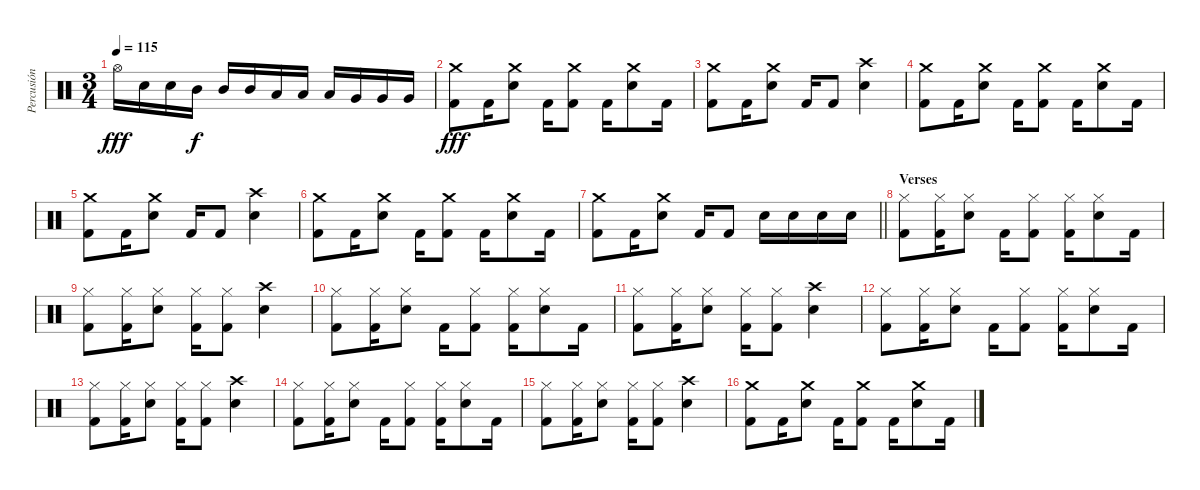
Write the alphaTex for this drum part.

\track ("Percusión" "Percusión") {instrument percussion}
\staff {score}
\articulation defaults
\ts (3 4)
\tempo 115
\clef neutral
\ks c "Hi-Hat (open)".16{dy fff} "Electric Snare (hit)".16 "Electric Snare (hit)".16 "Mid Tom (hit)".16{dy f} "Mid Tom (hit)".16 "Mid Tom (hit)".16 "Low Tom (hit)".16 "Low Tom (hit)".16 "Low Tom (hit)".16 "Very Low Tom (hit)".16 "Very Low Tom (hit)".16 "Very Low Tom (hit)".16
|
("Crash medium (hit)" "Kick (hit) 2").8{dy fff} "Kick (hit) 2".16 ("Crash medium (hit)" "Electric Snare (hit)").8 "Kick (hit) 2".16 ("Crash medium (hit)" "Kick (hit) 2").8 "Kick (hit) 2".16 ("Crash medium (hit)" "Electric Snare (hit)").8 "Kick (hit) 2".16 |
("Crash medium (hit)" "Kick (hit) 2").8 "Kick (hit) 2".16 ("Crash medium (hit)" "Electric Snare (hit)").8 "Kick (hit) 2".16 "Kick (hit) 2".8 ("Crash high (hit)" "Electric Snare (hit)").4 |
("Crash medium (hit)" "Kick (hit) 2").8 "Kick (hit) 2".16 ("Crash medium (hit)" "Electric Snare (hit)").8 "Kick (hit) 2".16 ("Crash medium (hit)" "Kick (hit) 2").8 "Kick (hit) 2".16 ("Crash medium (hit)" "Electric Snare (hit)").8 "Kick (hit) 2".16 |
("Crash medium (hit)" "Kick (hit) 2").8 "Kick (hit) 2".16 ("Crash medium (hit)" "Electric Snare (hit)").8 "Kick (hit) 2".16 "Kick (hit) 2".8 ("Crash high (hit)" "Electric Snare (hit)").4 |
("Crash medium (hit)" "Kick (hit) 2").8 "Kick (hit) 2".16 ("Crash medium (hit)" "Electric Snare (hit)").8 "Kick (hit) 2".16 ("Crash medium (hit)" "Kick (hit) 2").8 "Kick (hit) 2".16 ("Crash medium (hit)" "Electric Snare (hit)").8 "Kick (hit) 2".16 |
\barLineRight lightlight
("Crash medium (hit)" "Kick (hit) 2").8 "Kick (hit) 2".16 ("Crash medium (hit)" "Electric Snare (hit)").8 "Kick (hit) 2".16 "Kick (hit) 2".8 "Electric Snare (hit)".16 "Electric Snare (hit)".16 "Electric Snare (hit)".16 "Electric Snare (hit)".16 |
\section ("" "Verses")
("Hi-Hat (closed)" "Kick (hit) 2").8 ("Hi-Hat (closed)" "Kick (hit) 2").16 ("Hi-Hat (closed)" "Electric Snare (hit)").8 "Kick (hit) 2".16 ("Hi-Hat (closed)" "Kick (hit) 2").8 ("Hi-Hat (closed)" "Kick (hit) 2").16 ("Hi-Hat (closed)" "Electric Snare (hit)").8 "Kick (hit) 2".16 |
("Hi-Hat (closed)" "Kick (hit) 2").8 ("Hi-Hat (closed)" "Kick (hit) 2").16 ("Hi-Hat (closed)" "Electric Snare (hit)").8 ("Hi-Hat (closed)" "Kick (hit) 2").16 ("Hi-Hat (closed)" "Kick (hit) 2").8 ("Crash high (hit)" "Electric Snare (hit)").4 |
("Hi-Hat (closed)" "Kick (hit) 2").8 ("Hi-Hat (closed)" "Kick (hit) 2").16 ("Hi-Hat (closed)" "Electric Snare (hit)").8 "Kick (hit) 2".16 ("Hi-Hat (closed)" "Kick (hit) 2").8 ("Hi-Hat (closed)" "Kick (hit) 2").16 ("Hi-Hat (closed)" "Electric Snare (hit)").8 "Kick (hit) 2".16 |
("Hi-Hat (closed)" "Kick (hit) 2").8 ("Hi-Hat (closed)" "Kick (hit) 2").16 ("Hi-Hat (closed)" "Electric Snare (hit)").8 ("Hi-Hat (closed)" "Kick (hit) 2").16 ("Hi-Hat (closed)" "Kick (hit) 2").8 ("Crash high (hit)" "Electric Snare (hit)").4 |
("Hi-Hat (closed)" "Kick (hit) 2").8 ("Hi-Hat (closed)" "Kick (hit) 2").16 ("Hi-Hat (closed)" "Electric Snare (hit)").8 "Kick (hit) 2".16 ("Hi-Hat (closed)" "Kick (hit) 2").8 ("Hi-Hat (closed)" "Kick (hit) 2").16 ("Hi-Hat (closed)" "Electric Snare (hit)").8 "Kick (hit) 2".16 |
("Hi-Hat (closed)" "Kick (hit) 2").8 ("Hi-Hat (closed)" "Kick (hit) 2").16 ("Hi-Hat (closed)" "Electric Snare (hit)").8 ("Hi-Hat (closed)" "Kick (hit) 2").16 ("Hi-Hat (closed)" "Kick (hit) 2").8 ("Crash high (hit)" "Electric Snare (hit)").4 |
("Hi-Hat (closed)" "Kick (hit) 2").8 ("Hi-Hat (closed)" "Kick (hit) 2").16 ("Hi-Hat (closed)" "Electric Snare (hit)").8 "Kick (hit) 2".16 ("Hi-Hat (closed)" "Kick (hit) 2").8 ("Hi-Hat (closed)" "Kick (hit) 2").16 ("Hi-Hat (closed)" "Electric Snare (hit)").8 "Kick (hit) 2".16 |
("Hi-Hat (closed)" "Kick (hit) 2").8 ("Hi-Hat (closed)" "Kick (hit) 2").16 ("Hi-Hat (closed)" "Electric Snare (hit)").8 ("Hi-Hat (closed)" "Kick (hit) 2").16 ("Hi-Hat (closed)" "Kick (hit) 2").8 ("Crash high (hit)" "Electric Snare (hit)").4 |
("Crash medium (hit)" "Kick (hit) 2").8 "Kick (hit) 2".16 ("Crash medium (hit)" "Electric Snare (hit)").8 "Kick (hit) 2".16 ("Crash medium (hit)" "Kick (hit) 2").8 "Kick (hit) 2".16 ("Crash medium (hit)" "Electric Snare (hit)").8 "Kick (hit) 2".16
